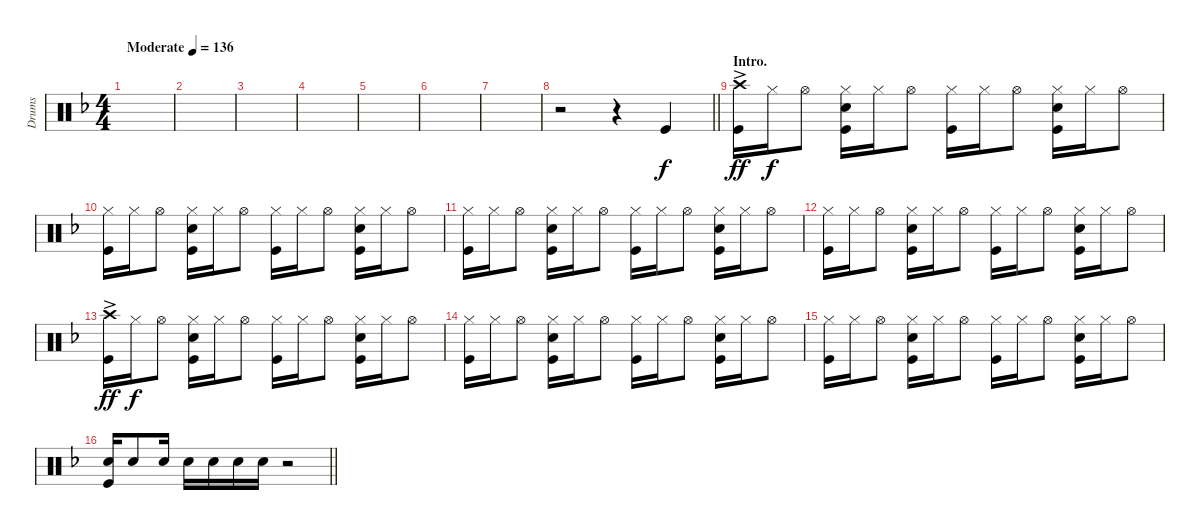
\track ("Drums" "Drums") {instrument percussion}
\staff {score}
\articulation defaults
\ts (4 4)
\tempo (136 "Moderate")
\clef neutral
\ks dminor
|
|
|
|
|
|
|
\barLineRight lightlight
r.2{volume 13} r.4 "Kick (hit)".4 |
\section ("" "Intro.")
("Kick (hit)" "Crash high (hit)"{ac}).16{dy ff} "Hi-Hat (closed)".16{dy f} "Hi-Hat (open)".8 ("Kick (hit)" "Hi-Hat (closed)" "Snare (hit) 2").16 "Hi-Hat (closed)".16 "Hi-Hat (open)".8 ("Kick (hit)" "Hi-Hat (closed)").16 "Hi-Hat (closed)".16 "Hi-Hat (open)".8 ("Kick (hit)" "Hi-Hat (closed)" "Snare (hit) 2").16 "Hi-Hat (closed)".16 "Hi-Hat (open)".8 |
("Kick (hit)" "Hi-Hat (closed)").16 "Hi-Hat (closed)".16 "Hi-Hat (open)".8 ("Kick (hit)" "Hi-Hat (closed)" "Snare (hit) 2").16 "Hi-Hat (closed)".16 "Hi-Hat (open)".8 ("Kick (hit)" "Hi-Hat (closed)").16 "Hi-Hat (closed)".16 "Hi-Hat (open)".8 ("Kick (hit)" "Hi-Hat (closed)" "Snare (hit) 2").16 "Hi-Hat (closed)".16 "Hi-Hat (open)".8 |
("Kick (hit)" "Hi-Hat (closed)").16 "Hi-Hat (closed)".16 "Hi-Hat (open)".8 ("Kick (hit)" "Hi-Hat (closed)" "Snare (hit) 2").16 "Hi-Hat (closed)".16 "Hi-Hat (open)".8 ("Kick (hit)" "Hi-Hat (closed)").16 "Hi-Hat (closed)".16 "Hi-Hat (open)".8 ("Kick (hit)" "Hi-Hat (closed)" "Snare (hit) 2").16 "Hi-Hat (closed)".16 "Hi-Hat (open)".8 |
("Kick (hit)" "Hi-Hat (closed)").16 "Hi-Hat (closed)".16 "Hi-Hat (open)".8 ("Kick (hit)" "Hi-Hat (closed)" "Snare (hit) 2").16 "Hi-Hat (closed)".16 "Hi-Hat (open)".8 ("Kick (hit)" "Hi-Hat (closed)").16 "Hi-Hat (closed)".16 "Hi-Hat (open)".8 ("Kick (hit)" "Hi-Hat (closed)" "Snare (hit) 2").16 "Hi-Hat (closed)".16 "Hi-Hat (open)".8 |
("Kick (hit)" "Crash high (hit)"{ac}).16{dy ff} "Hi-Hat (closed)".16{dy f} "Hi-Hat (open)".8 ("Kick (hit)" "Hi-Hat (closed)" "Snare (hit) 2").16 "Hi-Hat (closed)".16 "Hi-Hat (open)".8 ("Kick (hit)" "Hi-Hat (closed)").16 "Hi-Hat (closed)".16 "Hi-Hat (open)".8 ("Kick (hit)" "Hi-Hat (closed)" "Snare (hit) 2").16 "Hi-Hat (closed)".16 "Hi-Hat (open)".8 |
("Kick (hit)" "Hi-Hat (closed)").16 "Hi-Hat (closed)".16 "Hi-Hat (open)".8 ("Kick (hit)" "Hi-Hat (closed)" "Snare (hit) 2").16 "Hi-Hat (closed)".16 "Hi-Hat (open)".8 ("Kick (hit)" "Hi-Hat (closed)").16 "Hi-Hat (closed)".16 "Hi-Hat (open)".8 ("Kick (hit)" "Hi-Hat (closed)" "Snare (hit) 2").16 "Hi-Hat (closed)".16 "Hi-Hat (open)".8 |
("Kick (hit)" "Hi-Hat (closed)").16 "Hi-Hat (closed)".16 "Hi-Hat (open)".8 ("Kick (hit)" "Hi-Hat (closed)" "Snare (hit) 2").16 "Hi-Hat (closed)".16 "Hi-Hat (open)".8 ("Kick (hit)" "Hi-Hat (closed)").16 "Hi-Hat (closed)".16 "Hi-Hat (open)".8 ("Kick (hit)" "Hi-Hat (closed)" "Snare (hit) 2").16 "Hi-Hat (closed)".16 "Hi-Hat (open)".8 |
\barLineRight lightlight
("Kick (hit)" "Snare (hit) 2").16 "Snare (hit) 2".8 "Snare (hit) 2".16 "Snare (hit) 2".16 "Snare (hit) 2".16 "Snare (hit) 2".16 "Snare (hit) 2".16 r.2
